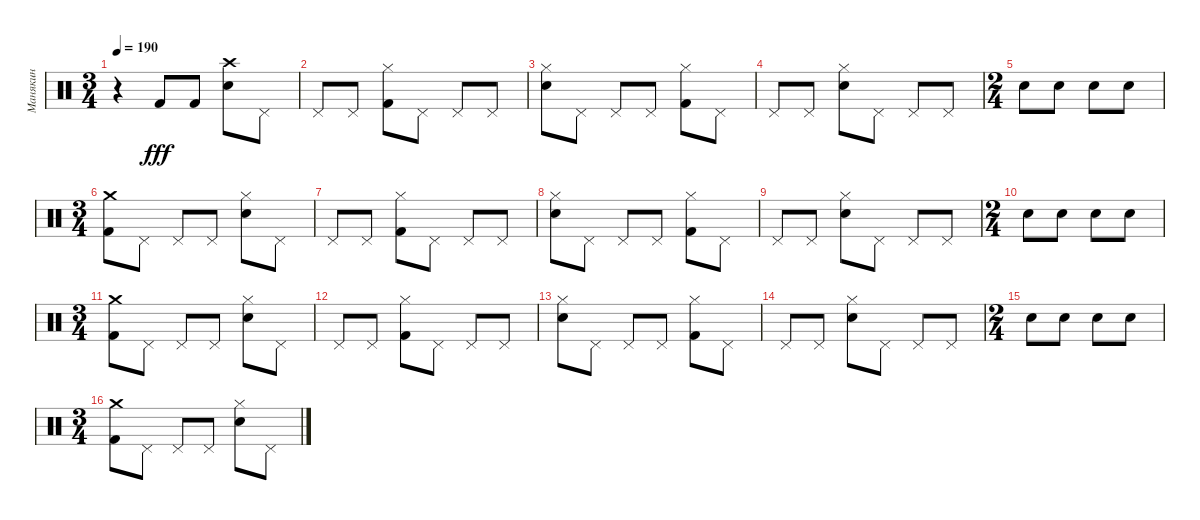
\track ("Манякин" "Манякин") {instrument percussion}
\staff {score}
\articulation defaults
\ts (3 4)
\tempo 190
\clef neutral
\ks c
r.4{dy fff} "Kick (hit) 2".8 "Kick (hit) 2".8 ("Snare (hit) 2" "Crash high (hit)").8 "Pedal Hi-Hat (hit)".8 |
"Pedal Hi-Hat (hit)".8 "Pedal Hi-Hat (hit)".8 ("Hi-Hat (closed)" "Kick (hit) 2").8 "Pedal Hi-Hat (hit)".8 "Pedal Hi-Hat (hit)".8 "Pedal Hi-Hat (hit)".8 |
("Hi-Hat (closed)" "Snare (hit) 2").8 "Pedal Hi-Hat (hit)".8 "Pedal Hi-Hat (hit)".8 "Pedal Hi-Hat (hit)".8 ("Hi-Hat (closed)" "Kick (hit) 2").8 "Pedal Hi-Hat (hit)".8 |
"Pedal Hi-Hat (hit)".8 "Pedal Hi-Hat (hit)".8 ("Hi-Hat (closed)" "Snare (hit) 2").8 "Pedal Hi-Hat (hit)".8 "Pedal Hi-Hat (hit)".8 "Pedal Hi-Hat (hit)".8 |
\ts (2 4)
"Snare (hit) 2".8 "Snare (hit) 2".8 "Snare (hit) 2".8 "Snare (hit) 2".8 |
\ts (3 4)
("Crash medium (hit)" "Kick (hit) 2").8 "Pedal Hi-Hat (hit)".8 "Pedal Hi-Hat (hit)".8 "Pedal Hi-Hat (hit)".8 ("Snare (hit) 2" "Hi-Hat (closed)").8 "Pedal Hi-Hat (hit)".8 |
"Pedal Hi-Hat (hit)".8 "Pedal Hi-Hat (hit)".8 ("Hi-Hat (closed)" "Kick (hit) 2").8 "Pedal Hi-Hat (hit)".8 "Pedal Hi-Hat (hit)".8 "Pedal Hi-Hat (hit)".8 |
("Hi-Hat (closed)" "Snare (hit) 2").8 "Pedal Hi-Hat (hit)".8 "Pedal Hi-Hat (hit)".8 "Pedal Hi-Hat (hit)".8 ("Hi-Hat (closed)" "Kick (hit) 2").8 "Pedal Hi-Hat (hit)".8 |
"Pedal Hi-Hat (hit)".8 "Pedal Hi-Hat (hit)".8 ("Hi-Hat (closed)" "Snare (hit) 2").8 "Pedal Hi-Hat (hit)".8 "Pedal Hi-Hat (hit)".8 "Pedal Hi-Hat (hit)".8 |
\ts (2 4)
"Snare (hit) 2".8 "Snare (hit) 2".8 "Snare (hit) 2".8 "Snare (hit) 2".8 |
\ts (3 4)
("Crash medium (hit)" "Kick (hit) 2").8 "Pedal Hi-Hat (hit)".8 "Pedal Hi-Hat (hit)".8 "Pedal Hi-Hat (hit)".8 ("Snare (hit) 2" "Hi-Hat (closed)").8 "Pedal Hi-Hat (hit)".8 |
"Pedal Hi-Hat (hit)".8 "Pedal Hi-Hat (hit)".8 ("Hi-Hat (closed)" "Kick (hit) 2").8 "Pedal Hi-Hat (hit)".8 "Pedal Hi-Hat (hit)".8 "Pedal Hi-Hat (hit)".8 |
("Hi-Hat (closed)" "Snare (hit) 2").8 "Pedal Hi-Hat (hit)".8 "Pedal Hi-Hat (hit)".8 "Pedal Hi-Hat (hit)".8 ("Hi-Hat (closed)" "Kick (hit) 2").8 "Pedal Hi-Hat (hit)".8 |
"Pedal Hi-Hat (hit)".8 "Pedal Hi-Hat (hit)".8 ("Hi-Hat (closed)" "Snare (hit) 2").8 "Pedal Hi-Hat (hit)".8 "Pedal Hi-Hat (hit)".8 "Pedal Hi-Hat (hit)".8 |
\ts (2 4)
"Snare (hit) 2".8 "Snare (hit) 2".8 "Snare (hit) 2".8 "Snare (hit) 2".8 |
\ts (3 4)
("Crash medium (hit)" "Kick (hit) 2").8 "Pedal Hi-Hat (hit)".8 "Pedal Hi-Hat (hit)".8 "Pedal Hi-Hat (hit)".8 ("Snare (hit) 2" "Hi-Hat (closed)").8 "Pedal Hi-Hat (hit)".8
